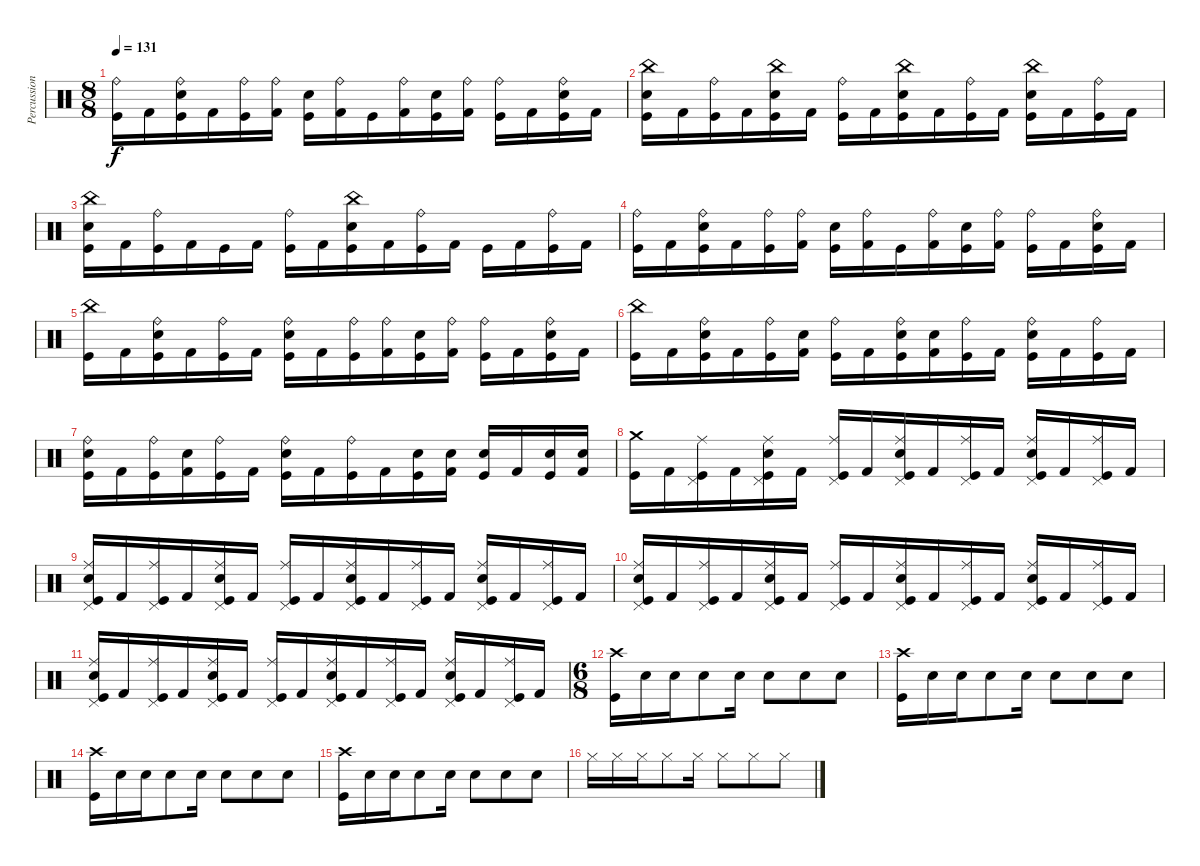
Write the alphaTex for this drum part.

\track ("Percussion" "Percussion") {instrument percussion}
\staff {score}
\articulation defaults
\ts (8 8)
\tempo 131
\clef neutral
\ks c
("Ride (bell)" "Kick (hit)").16{dy f} "Kick (hit) 2".16 ("Ride (bell)" "Electric Snare (hit)" "Kick (hit)").16 "Kick (hit) 2".16 ("Ride (bell)" "Kick (hit)").16 ("Ride (bell)" "Kick (hit) 2").16 ("Electric Snare (hit)" "Kick (hit)").16 ("Ride (bell)" "Kick (hit) 2").16 "Kick (hit)".16 ("Ride (bell)" "Kick (hit) 2").16 ("Electric Snare (hit)" "Kick (hit)").16 ("Ride (bell)" "Kick (hit) 2").16 ("Ride (bell)" "Kick (hit)").16 "Kick (hit) 2".16 ("Ride (bell)" "Electric Snare (hit)" "Kick (hit)").16 "Kick (hit) 2".16 |
("China (hit)" "Snare (hit) 2" "Kick (hit)").16 "Kick (hit) 2".16 ("Ride (bell)" "Kick (hit)").16 "Kick (hit) 2".16 ("China (hit)" "Snare (hit) 2" "Kick (hit)").16 "Kick (hit) 2".16 ("Ride (bell)" "Kick (hit)").16 "Kick (hit) 2".16 ("China (hit)" "Snare (hit) 2" "Kick (hit)").16 "Kick (hit) 2".16 ("Ride (bell)" "Kick (hit)").16 "Kick (hit) 2".16 ("China (hit)" "Snare (hit) 2" "Kick (hit)").16 "Kick (hit) 2".16 ("Ride (bell)" "Kick (hit)").16 "Kick (hit) 2".16 |
("China (hit)" "Snare (hit) 2" "Kick (hit)").16 "Kick (hit) 2".16 ("Ride (bell)" "Kick (hit)").16 "Kick (hit) 2".16 "Kick (hit)".16 "Kick (hit) 2".16 ("Ride (bell)" "Kick (hit)").16 "Kick (hit) 2".16 ("China (hit)" "Snare (hit) 2" "Kick (hit)").16 "Kick (hit) 2".16 ("Ride (bell)" "Kick (hit)").16 "Kick (hit) 2".16 "Kick (hit)".16 "Kick (hit) 2".16 ("Ride (bell)" "Kick (hit)").16 "Kick (hit) 2".16 |
("Ride (bell)" "Kick (hit)").16 "Kick (hit) 2".16 ("Ride (bell)" "Electric Snare (hit)" "Kick (hit)").16 "Kick (hit) 2".16 ("Ride (bell)" "Kick (hit)").16 ("Ride (bell)" "Kick (hit) 2").16 ("Electric Snare (hit)" "Kick (hit)").16 ("Ride (bell)" "Kick (hit) 2").16 "Kick (hit)".16 ("Ride (bell)" "Kick (hit) 2").16 ("Electric Snare (hit)" "Kick (hit)").16 ("Ride (bell)" "Kick (hit) 2").16 ("Ride (bell)" "Kick (hit)").16 "Kick (hit) 2".16 ("Ride (bell)" "Electric Snare (hit)" "Kick (hit)").16 "Kick (hit) 2".16 |
("China (hit)" "Kick (hit)").16 "Kick (hit) 2".16 ("Ride (bell)" "Electric Snare (hit)" "Kick (hit)").16 "Kick (hit) 2".16 ("Ride (bell)" "Kick (hit)").16 "Kick (hit) 2".16 ("Ride (bell)" "Electric Snare (hit)" "Kick (hit)").16 "Kick (hit) 2".16 ("Ride (bell)" "Kick (hit)").16 ("Ride (bell)" "Kick (hit) 2").16 ("Electric Snare (hit)" "Kick (hit)").16 ("Ride (bell)" "Kick (hit) 2").16 ("Ride (bell)" "Kick (hit)").16 "Kick (hit) 2".16 ("Ride (bell)" "Electric Snare (hit)" "Kick (hit)").16 "Kick (hit) 2".16 |
("China (hit)" "Kick (hit)").16 "Kick (hit) 2".16 ("Ride (bell)" "Electric Snare (hit)" "Kick (hit)").16 "Kick (hit) 2".16 ("Ride (bell)" "Kick (hit)").16 ("Electric Snare (hit)" "Kick (hit) 2").16 ("Ride (bell)" "Kick (hit)").16 "Kick (hit) 2".16 ("Ride (bell)" "Electric Snare (hit)" "Kick (hit)").16 ("Electric Snare (hit)" "Kick (hit) 2").16 ("Ride (bell)" "Kick (hit)").16 "Kick (hit) 2".16 ("Ride (bell)" "Electric Snare (hit)" "Kick (hit)").16 "Kick (hit) 2".16 ("Ride (bell)" "Kick (hit)").16 "Kick (hit) 2".16 |
("Ride (bell)" "Electric Snare (hit)" "Kick (hit)").16 "Kick (hit) 2".16 ("Ride (bell)" "Kick (hit)").16 ("Electric Snare (hit)" "Kick (hit) 2").16 ("Ride (bell)" "Kick (hit)").16 "Kick (hit) 2".16 ("Ride (bell)" "Electric Snare (hit)" "Kick (hit)").16 "Kick (hit) 2".16 ("Ride (bell)" "Kick (hit)").16 "Kick (hit) 2".16 ("Snare (hit) 2" "Kick (hit)").16 ("Snare (hit) 2" "Kick (hit) 2").16 ("Snare (hit) 2" "Kick (hit)").16 "Kick (hit) 2".16 ("Snare (hit) 2" "Kick (hit)").16 ("Snare (hit) 2" "Kick (hit) 2").16 |
("Crash medium (hit)" "Kick (hit)").16 "Kick (hit) 2".16 ("Ride (middle)" "Pedal Hi-Hat (hit)" "Kick (hit)").16 "Kick (hit) 2".16 ("Ride (middle)" "Pedal Hi-Hat (hit)" "Kick (hit)" "Snare (hit) 2").16 "Kick (hit) 2".16 ("Ride (middle)" "Pedal Hi-Hat (hit)" "Kick (hit)").16 "Kick (hit) 2".16 ("Ride (middle)" "Pedal Hi-Hat (hit)" "Kick (hit)" "Snare (hit) 2").16 "Kick (hit) 2".16 ("Ride (middle)" "Pedal Hi-Hat (hit)" "Kick (hit)").16 "Kick (hit) 2".16 ("Ride (middle)" "Pedal Hi-Hat (hit)" "Kick (hit)" "Snare (hit) 2").16 "Kick (hit) 2".16 ("Ride (middle)" "Pedal Hi-Hat (hit)" "Kick (hit)").16 "Kick (hit) 2".16 |
("Snare (hit) 2" "Ride (middle)" "Kick (hit)" "Pedal Hi-Hat (hit)").16 "Kick (hit) 2".16 ("Ride (middle)" "Pedal Hi-Hat (hit)" "Kick (hit)").16 "Kick (hit) 2".16 ("Ride (middle)" "Pedal Hi-Hat (hit)" "Kick (hit)" "Snare (hit) 2").16 "Kick (hit) 2".16 ("Ride (middle)" "Pedal Hi-Hat (hit)" "Kick (hit)").16 "Kick (hit) 2".16 ("Ride (middle)" "Pedal Hi-Hat (hit)" "Kick (hit)" "Snare (hit) 2").16 "Kick (hit) 2".16 ("Ride (middle)" "Pedal Hi-Hat (hit)" "Kick (hit)").16 "Kick (hit) 2".16 ("Ride (middle)" "Pedal Hi-Hat (hit)" "Kick (hit)" "Snare (hit) 2").16 "Kick (hit) 2".16 ("Ride (middle)" "Pedal Hi-Hat (hit)" "Kick (hit)").16 "Kick (hit) 2".16 |
("Snare (hit) 2" "Ride (middle)" "Kick (hit)" "Pedal Hi-Hat (hit)").16 "Kick (hit) 2".16 ("Ride (middle)" "Pedal Hi-Hat (hit)" "Kick (hit)").16 "Kick (hit) 2".16 ("Ride (middle)" "Pedal Hi-Hat (hit)" "Kick (hit)" "Snare (hit) 2").16 "Kick (hit) 2".16 ("Ride (middle)" "Pedal Hi-Hat (hit)" "Kick (hit)").16 "Kick (hit) 2".16 ("Ride (middle)" "Pedal Hi-Hat (hit)" "Kick (hit)" "Snare (hit) 2").16 "Kick (hit) 2".16 ("Ride (middle)" "Pedal Hi-Hat (hit)" "Kick (hit)").16 "Kick (hit) 2".16 ("Ride (middle)" "Pedal Hi-Hat (hit)" "Kick (hit)" "Snare (hit) 2").16 "Kick (hit) 2".16 ("Ride (middle)" "Pedal Hi-Hat (hit)" "Kick (hit)").16 "Kick (hit) 2".16 |
("Snare (hit) 2" "Ride (middle)" "Kick (hit)" "Pedal Hi-Hat (hit)").16 "Kick (hit) 2".16 ("Ride (middle)" "Pedal Hi-Hat (hit)" "Kick (hit)").16 "Kick (hit) 2".16 ("Ride (middle)" "Pedal Hi-Hat (hit)" "Kick (hit)" "Snare (hit) 2").16 "Kick (hit) 2".16 ("Ride (middle)" "Pedal Hi-Hat (hit)" "Kick (hit)").16 "Kick (hit) 2".16 ("Ride (middle)" "Pedal Hi-Hat (hit)" "Kick (hit)" "Snare (hit) 2").16 "Kick (hit) 2".16 ("Ride (middle)" "Pedal Hi-Hat (hit)" "Kick (hit)").16 "Kick (hit) 2".16 ("Ride (middle)" "Pedal Hi-Hat (hit)" "Kick (hit)" "Snare (hit) 2").16 "Kick (hit) 2".16 ("Ride (middle)" "Pedal Hi-Hat (hit)" "Kick (hit)").16 "Kick (hit) 2".16 |
\ts (6 8)
("Kick (hit)" "Crash high (hit)").16 "Snare (hit) 2".16 "Snare (hit) 2".16 "Snare (hit) 2".8 "Snare (hit) 2".16 "Snare (hit) 2".8 "Snare (hit) 2".8 "Snare (hit) 2".8 |
("Kick (hit)" "Crash high (hit)").16 "Snare (hit) 2".16 "Snare (hit) 2".16 "Snare (hit) 2".8 "Snare (hit) 2".16 "Snare (hit) 2".8 "Snare (hit) 2".8 "Snare (hit) 2".8 |
("Kick (hit)" "Crash high (hit)").16 "Snare (hit) 2".16 "Snare (hit) 2".16 "Snare (hit) 2".8 "Snare (hit) 2".16 "Snare (hit) 2".8 "Snare (hit) 2".8 "Snare (hit) 2".8 |
("Kick (hit)" "Crash high (hit)").16 "Snare (hit) 2".16 "Snare (hit) 2".16 "Snare (hit) 2".8 "Snare (hit) 2".16 "Snare (hit) 2".8 "Snare (hit) 2".8 "Snare (hit) 2".8 |
"Hi-Hat (closed)".16 "Hi-Hat (closed)".16 "Hi-Hat (closed)".16 "Hi-Hat (closed)".8 "Hi-Hat (closed)".16 "Hi-Hat (closed)".8 "Hi-Hat (closed)".8 "Hi-Hat (closed)".8
